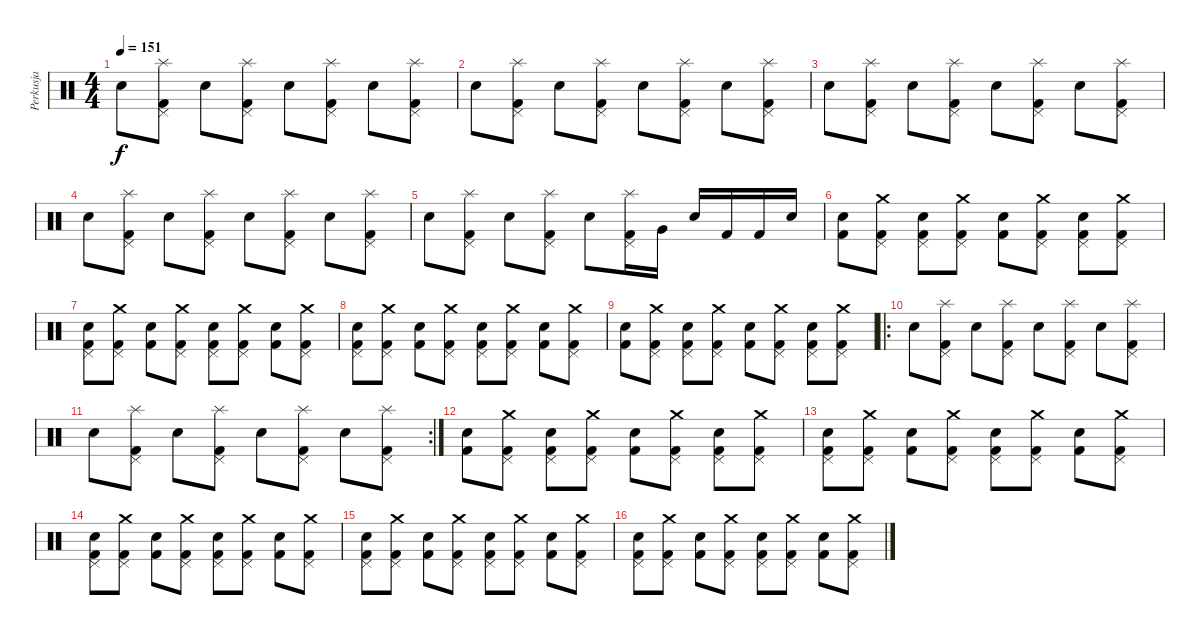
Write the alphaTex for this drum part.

\track ("Perkusja" "Perkusja") {instrument percussion}
\staff {score}
\articulation defaults
\ts (4 4)
\tempo 151
\clef neutral
\ks c "Snare (hit) 2".8{dy f}
("Splash (hit)" "Kick (hit) 2" "Pedal Hi-Hat (hit)").8 "Snare (hit) 2".8 ("Splash (hit)" "Kick (hit) 2" "Pedal Hi-Hat (hit)").8 "Snare (hit) 2".8 ("Splash (hit)" "Kick (hit) 2" "Pedal Hi-Hat (hit)").8 "Snare (hit) 2".8 ("Splash (hit)" "Kick (hit) 2" "Pedal Hi-Hat (hit)").8 |
"Snare (hit) 2".8 ("Splash (hit)" "Kick (hit) 2" "Pedal Hi-Hat (hit)").8 "Snare (hit) 2".8 ("Splash (hit)" "Kick (hit) 2" "Pedal Hi-Hat (hit)").8 "Snare (hit) 2".8 ("Splash (hit)" "Kick (hit) 2" "Pedal Hi-Hat (hit)").8 "Snare (hit) 2".8 ("Splash (hit)" "Kick (hit) 2" "Pedal Hi-Hat (hit)").8 |
"Snare (hit) 2".8 ("Splash (hit)" "Kick (hit) 2" "Pedal Hi-Hat (hit)").8 "Snare (hit) 2".8 ("Splash (hit)" "Kick (hit) 2" "Pedal Hi-Hat (hit)").8 "Snare (hit) 2".8 ("Splash (hit)" "Kick (hit) 2" "Pedal Hi-Hat (hit)").8 "Snare (hit) 2".8 ("Splash (hit)" "Kick (hit) 2" "Pedal Hi-Hat (hit)").8 |
"Snare (hit) 2".8 ("Splash (hit)" "Kick (hit) 2" "Pedal Hi-Hat (hit)").8 "Snare (hit) 2".8 ("Splash (hit)" "Kick (hit) 2" "Pedal Hi-Hat (hit)").8 "Snare (hit) 2".8 ("Splash (hit)" "Kick (hit) 2" "Pedal Hi-Hat (hit)").8 "Snare (hit) 2".8 ("Splash (hit)" "Kick (hit) 2" "Pedal Hi-Hat (hit)").8 |
"Snare (hit) 2".8 ("Splash (hit)" "Kick (hit) 2" "Pedal Hi-Hat (hit)").8 "Snare (hit) 2".8 ("Splash (hit)" "Kick (hit) 2" "Pedal Hi-Hat (hit)").8 "Snare (hit) 2".8 ("Splash (hit)" "Kick (hit) 2" "Pedal Hi-Hat (hit)").16 "Very Low Tom (hit)".16 "Snare (hit) 2".16 "Kick (hit) 2".16 "Kick (hit) 2".16 "Snare (hit) 2".16 |
("Kick (hit) 2" "Snare (hit) 2").8 ("Crash medium (hit)" "Kick (hit) 2" "Pedal Hi-Hat (hit)").8 ("Pedal Hi-Hat (hit)" "Kick (hit) 2" "Snare (hit) 2").8 ("Crash medium (hit)" "Kick (hit) 2" "Pedal Hi-Hat (hit)").8 ("Kick (hit) 2" "Snare (hit) 2").8 ("Crash medium (hit)" "Kick (hit) 2" "Pedal Hi-Hat (hit)").8 ("Pedal Hi-Hat (hit)" "Kick (hit) 2" "Snare (hit) 2").8 ("Crash medium (hit)" "Kick (hit) 2" "Pedal Hi-Hat (hit)").8 |
("Pedal Hi-Hat (hit)" "Kick (hit) 2" "Snare (hit) 2").8 ("Crash medium (hit)" "Kick (hit) 2" "Pedal Hi-Hat (hit)").8 ("Kick (hit) 2" "Snare (hit) 2").8 ("Crash medium (hit)" "Kick (hit) 2" "Pedal Hi-Hat (hit)").8 ("Pedal Hi-Hat (hit)" "Kick (hit) 2" "Snare (hit) 2").8 ("Crash medium (hit)" "Kick (hit) 2" "Pedal Hi-Hat (hit)").8 ("Kick (hit) 2" "Snare (hit) 2").8 ("Crash medium (hit)" "Kick (hit) 2" "Pedal Hi-Hat (hit)").8 |
("Pedal Hi-Hat (hit)" "Kick (hit) 2" "Snare (hit) 2").8 ("Crash medium (hit)" "Kick (hit) 2" "Pedal Hi-Hat (hit)").8 ("Kick (hit) 2" "Snare (hit) 2").8 ("Crash medium (hit)" "Kick (hit) 2" "Pedal Hi-Hat (hit)").8 ("Pedal Hi-Hat (hit)" "Kick (hit) 2" "Snare (hit) 2").8 ("Crash medium (hit)" "Kick (hit) 2" "Pedal Hi-Hat (hit)").8 ("Kick (hit) 2" "Snare (hit) 2").8 ("Crash medium (hit)" "Kick (hit) 2" "Pedal Hi-Hat (hit)").8 |
("Kick (hit) 2" "Snare (hit) 2").8 ("Crash medium (hit)" "Kick (hit) 2" "Pedal Hi-Hat (hit)").8 ("Pedal Hi-Hat (hit)" "Kick (hit) 2" "Snare (hit) 2").8 ("Crash medium (hit)" "Kick (hit) 2" "Pedal Hi-Hat (hit)").8 ("Kick (hit) 2" "Snare (hit) 2").8 ("Crash medium (hit)" "Kick (hit) 2" "Pedal Hi-Hat (hit)").8 ("Pedal Hi-Hat (hit)" "Kick (hit) 2" "Snare (hit) 2").8 ("Crash medium (hit)" "Kick (hit) 2" "Pedal Hi-Hat (hit)").8 |
\ro "Snare (hit) 2".8
("Splash (hit)" "Kick (hit) 2" "Pedal Hi-Hat (hit)").8 "Snare (hit) 2".8 ("Splash (hit)" "Kick (hit) 2" "Pedal Hi-Hat (hit)").8 "Snare (hit) 2".8 ("Splash (hit)" "Kick (hit) 2" "Pedal Hi-Hat (hit)").8 "Snare (hit) 2".8 ("Splash (hit)" "Kick (hit) 2" "Pedal Hi-Hat (hit)").8 |
\rc 2 "Snare (hit) 2".8
("Splash (hit)" "Kick (hit) 2" "Pedal Hi-Hat (hit)").8 "Snare (hit) 2".8 ("Splash (hit)" "Kick (hit) 2" "Pedal Hi-Hat (hit)").8 "Snare (hit) 2".8 ("Splash (hit)" "Kick (hit) 2" "Pedal Hi-Hat (hit)").8 "Snare (hit) 2".8 ("Splash (hit)" "Kick (hit) 2" "Pedal Hi-Hat (hit)").8 |
("Kick (hit) 2" "Snare (hit) 2").8 ("Crash medium (hit)" "Kick (hit) 2" "Pedal Hi-Hat (hit)").8 ("Pedal Hi-Hat (hit)" "Kick (hit) 2" "Snare (hit) 2").8 ("Crash medium (hit)" "Kick (hit) 2" "Pedal Hi-Hat (hit)").8 ("Kick (hit) 2" "Snare (hit) 2").8 ("Crash medium (hit)" "Kick (hit) 2" "Pedal Hi-Hat (hit)").8 ("Pedal Hi-Hat (hit)" "Kick (hit) 2" "Snare (hit) 2").8 ("Crash medium (hit)" "Kick (hit) 2" "Pedal Hi-Hat (hit)").8 |
("Pedal Hi-Hat (hit)" "Kick (hit) 2" "Snare (hit) 2").8 ("Crash medium (hit)" "Kick (hit) 2" "Pedal Hi-Hat (hit)").8 ("Kick (hit) 2" "Snare (hit) 2").8 ("Crash medium (hit)" "Kick (hit) 2" "Pedal Hi-Hat (hit)").8 ("Pedal Hi-Hat (hit)" "Kick (hit) 2" "Snare (hit) 2").8 ("Crash medium (hit)" "Kick (hit) 2" "Pedal Hi-Hat (hit)").8 ("Kick (hit) 2" "Snare (hit) 2").8 ("Crash medium (hit)" "Kick (hit) 2" "Pedal Hi-Hat (hit)").8 |
("Pedal Hi-Hat (hit)" "Kick (hit) 2" "Snare (hit) 2").8 ("Crash medium (hit)" "Kick (hit) 2" "Pedal Hi-Hat (hit)").8 ("Kick (hit) 2" "Snare (hit) 2").8 ("Crash medium (hit)" "Kick (hit) 2" "Pedal Hi-Hat (hit)").8 ("Pedal Hi-Hat (hit)" "Kick (hit) 2" "Snare (hit) 2").8 ("Crash medium (hit)" "Kick (hit) 2" "Pedal Hi-Hat (hit)").8 ("Kick (hit) 2" "Snare (hit) 2").8 ("Crash medium (hit)" "Kick (hit) 2" "Pedal Hi-Hat (hit)").8 |
("Pedal Hi-Hat (hit)" "Kick (hit) 2" "Snare (hit) 2").8 ("Crash medium (hit)" "Kick (hit) 2" "Pedal Hi-Hat (hit)").8 ("Kick (hit) 2" "Snare (hit) 2").8 ("Crash medium (hit)" "Kick (hit) 2" "Pedal Hi-Hat (hit)").8 ("Pedal Hi-Hat (hit)" "Kick (hit) 2" "Snare (hit) 2").8 ("Crash medium (hit)" "Kick (hit) 2" "Pedal Hi-Hat (hit)").8 ("Kick (hit) 2" "Snare (hit) 2").8 ("Crash medium (hit)" "Kick (hit) 2" "Pedal Hi-Hat (hit)").8 |
("Pedal Hi-Hat (hit)" "Kick (hit) 2" "Snare (hit) 2").8 ("Crash medium (hit)" "Kick (hit) 2" "Pedal Hi-Hat (hit)").8 ("Kick (hit) 2" "Snare (hit) 2").8 ("Crash medium (hit)" "Kick (hit) 2" "Pedal Hi-Hat (hit)").8 ("Pedal Hi-Hat (hit)" "Kick (hit) 2" "Snare (hit) 2").8 ("Crash medium (hit)" "Kick (hit) 2" "Pedal Hi-Hat (hit)").8 ("Kick (hit) 2" "Snare (hit) 2").8 ("Crash medium (hit)" "Kick (hit) 2" "Pedal Hi-Hat (hit)").8
